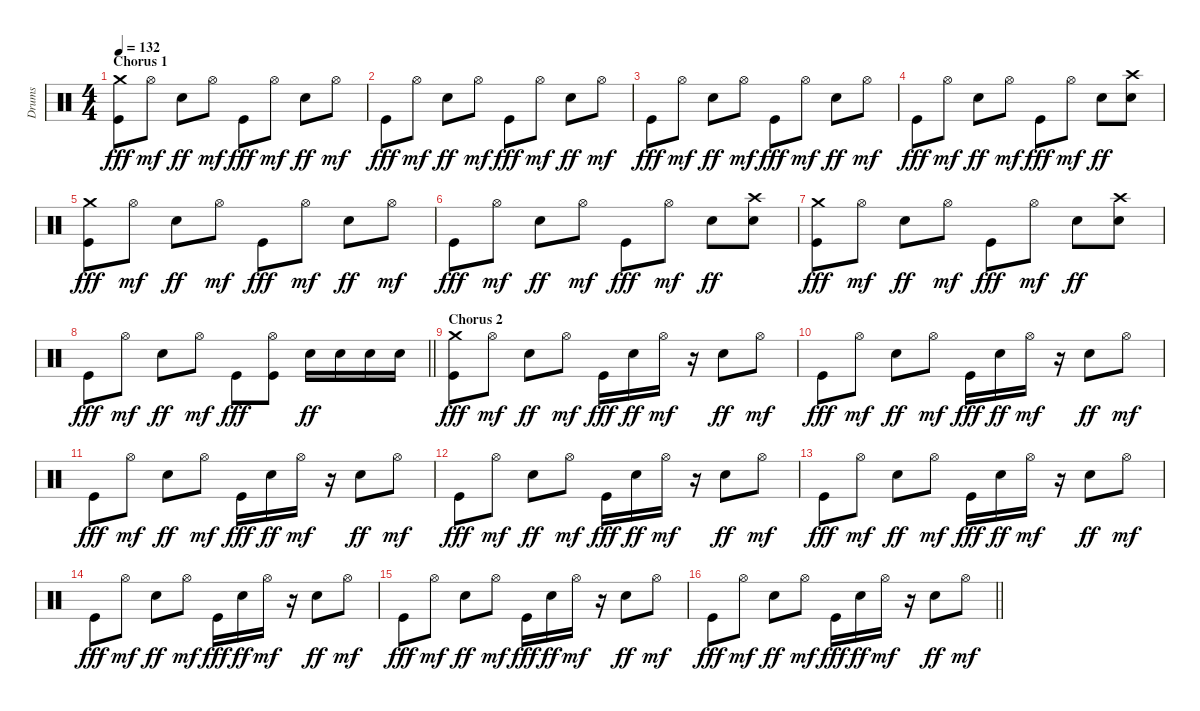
\track ("Drums" "Drums") {instrument percussion}
\staff {score}
\articulation defaults
\ts (4 4)
\section ("" "Chorus 1")
\tempo 132
\clef neutral
\ks c
("Crash medium (hit)" "Kick (hit)").8{dy fff} "Hi-Hat (open)".8{dy mf} "Snare (hit) 2".8{dy ff} "Hi-Hat (open)".8{dy mf} "Kick (hit)".8{dy fff} "Hi-Hat (open)".8{dy mf} "Snare (hit) 2".8{dy ff} "Hi-Hat (open)".8{dy mf} |
"Kick (hit)".8{dy fff} "Hi-Hat (open)".8{dy mf} "Snare (hit) 2".8{dy ff} "Hi-Hat (open)".8{dy mf} "Kick (hit)".8{dy fff} "Hi-Hat (open)".8{dy mf} "Snare (hit) 2".8{dy ff} "Hi-Hat (open)".8{dy mf} |
"Kick (hit)".8{dy fff} "Hi-Hat (open)".8{dy mf} "Snare (hit) 2".8{dy ff} "Hi-Hat (open)".8{dy mf} "Kick (hit)".8{dy fff} "Hi-Hat (open)".8{dy mf} "Snare (hit) 2".8{dy ff} "Hi-Hat (open)".8{dy mf} |
"Kick (hit)".8{dy fff} "Hi-Hat (open)".8{dy mf} "Snare (hit) 2".8{dy ff} "Hi-Hat (open)".8{dy mf} "Kick (hit)".8{dy fff} "Hi-Hat (open)".8{dy mf} "Snare (hit) 2".8{dy ff} ("Crash high (hit)" "Snare (hit) 2").8 |
("Crash medium (hit)" "Kick (hit)").8{dy fff} "Hi-Hat (open)".8{dy mf} "Snare (hit) 2".8{dy ff} "Hi-Hat (open)".8{dy mf} "Kick (hit)".8{dy fff} "Hi-Hat (open)".8{dy mf} "Snare (hit) 2".8{dy ff} "Hi-Hat (open)".8{dy mf} |
"Kick (hit)".8{dy fff} "Hi-Hat (open)".8{dy mf} "Snare (hit) 2".8{dy ff} "Hi-Hat (open)".8{dy mf} "Kick (hit)".8{dy fff} "Hi-Hat (open)".8{dy mf} "Snare (hit) 2".8{dy ff} ("Crash high (hit)" "Snare (hit) 2").8 |
("Crash medium (hit)" "Kick (hit)").8{dy fff} "Hi-Hat (open)".8{dy mf} "Snare (hit) 2".8{dy ff} "Hi-Hat (open)".8{dy mf} "Kick (hit)".8{dy fff} "Hi-Hat (open)".8{dy mf} "Snare (hit) 2".8{dy ff} ("Crash high (hit)" "Snare (hit) 2").8 |
\barLineRight lightlight "Kick (hit)".8{dy fff} "Hi-Hat (open)".8{dy mf} "Snare (hit) 2".8{dy ff} "Hi-Hat (open)".8{dy mf} "Kick (hit)".8{dy fff}
("Hi-Hat (open)" "Kick (hit)").8 "Snare (hit) 2".16{dy ff} "Snare (hit) 2".16 "Snare (hit) 2".16 "Snare (hit) 2".16 |
\section ("" "Chorus 2")
("Crash medium (hit)" "Kick (hit)").8{dy fff} "Hi-Hat (open)".8{dy mf} "Snare (hit) 2".8{dy ff} "Hi-Hat (open)".8{dy mf} "Kick (hit)".16{dy fff} "Snare (hit) 2".16{dy ff} "Hi-Hat (open)".16{dy mf} r.16 "Snare (hit) 2".8{dy ff} "Hi-Hat (open)".8{dy mf} |
"Kick (hit)".8{dy fff} "Hi-Hat (open)".8{dy mf} "Snare (hit) 2".8{dy ff} "Hi-Hat (open)".8{dy mf} "Kick (hit)".16{dy fff} "Snare (hit) 2".16{dy ff} "Hi-Hat (open)".16{dy mf} r.16 "Snare (hit) 2".8{dy ff} "Hi-Hat (open)".8{dy mf} |
"Kick (hit)".8{dy fff} "Hi-Hat (open)".8{dy mf} "Snare (hit) 2".8{dy ff} "Hi-Hat (open)".8{dy mf} "Kick (hit)".16{dy fff} "Snare (hit) 2".16{dy ff} "Hi-Hat (open)".16{dy mf} r.16 "Snare (hit) 2".8{dy ff} "Hi-Hat (open)".8{dy mf} |
"Kick (hit)".8{dy fff} "Hi-Hat (open)".8{dy mf} "Snare (hit) 2".8{dy ff} "Hi-Hat (open)".8{dy mf} "Kick (hit)".16{dy fff} "Snare (hit) 2".16{dy ff} "Hi-Hat (open)".16{dy mf} r.16 "Snare (hit) 2".8{dy ff} "Hi-Hat (open)".8{dy mf} |
"Kick (hit)".8{dy fff} "Hi-Hat (open)".8{dy mf} "Snare (hit) 2".8{dy ff} "Hi-Hat (open)".8{dy mf} "Kick (hit)".16{dy fff} "Snare (hit) 2".16{dy ff} "Hi-Hat (open)".16{dy mf} r.16 "Snare (hit) 2".8{dy ff} "Hi-Hat (open)".8{dy mf} |
"Kick (hit)".8{dy fff} "Hi-Hat (open)".8{dy mf} "Snare (hit) 2".8{dy ff} "Hi-Hat (open)".8{dy mf} "Kick (hit)".16{dy fff} "Snare (hit) 2".16{dy ff} "Hi-Hat (open)".16{dy mf} r.16 "Snare (hit) 2".8{dy ff} "Hi-Hat (open)".8{dy mf} |
"Kick (hit)".8{dy fff} "Hi-Hat (open)".8{dy mf} "Snare (hit) 2".8{dy ff} "Hi-Hat (open)".8{dy mf} "Kick (hit)".16{dy fff} "Snare (hit) 2".16{dy ff} "Hi-Hat (open)".16{dy mf} r.16 "Snare (hit) 2".8{dy ff} "Hi-Hat (open)".8{dy mf} |
\barLineRight lightlight "Kick (hit)".8{dy fff} "Hi-Hat (open)".8{dy mf} "Snare (hit) 2".8{dy ff} "Hi-Hat (open)".8{dy mf} "Kick (hit)".16{dy fff} "Snare (hit) 2".16{dy ff} "Hi-Hat (open)".16{dy mf}
r.16 "Snare (hit) 2".8{dy ff} "Hi-Hat (open)".8{dy mf}
